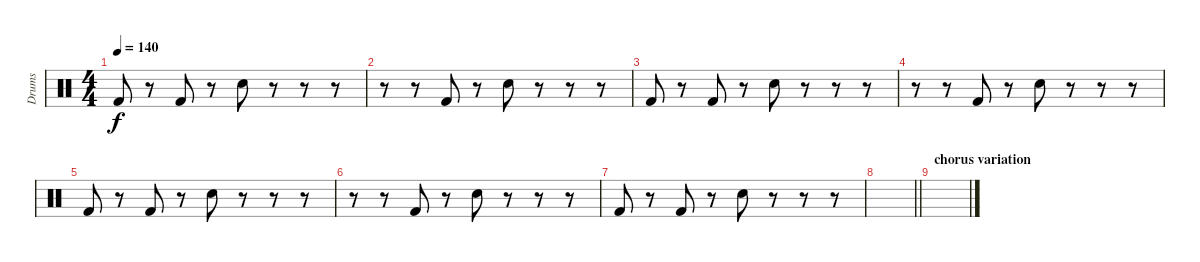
\track ("Drums" "Drums") {instrument percussion}
\staff {score}
\articulation defaults
\ts (4 4)
\tempo 140
\clef neutral
\ks c "Kick (hit) 2".8{dy f}
r.8 "Kick (hit) 2".8 r.8 "Electric Snare (hit)".8 r.8 r.8 r.8 |
r.8 r.8 "Kick (hit) 2".8 r.8 "Electric Snare (hit)".8 r.8 r.8 r.8 |
"Kick (hit) 2".8 r.8 "Kick (hit) 2".8 r.8 "Electric Snare (hit)".8 r.8 r.8 r.8 |
r.8 r.8 "Kick (hit) 2".8 r.8 "Electric Snare (hit)".8 r.8 r.8 r.8 |
"Kick (hit) 2".8 r.8 "Kick (hit) 2".8 r.8 "Electric Snare (hit)".8 r.8 r.8 r.8 |
r.8 r.8 "Kick (hit) 2".8 r.8 "Electric Snare (hit)".8 r.8 r.8 r.8 |
"Kick (hit) 2".8 r.8 "Kick (hit) 2".8 r.8 "Electric Snare (hit)".8 r.8 r.8 r.8 |
\barLineRight lightlight
|
\section ("" "chorus variation")
